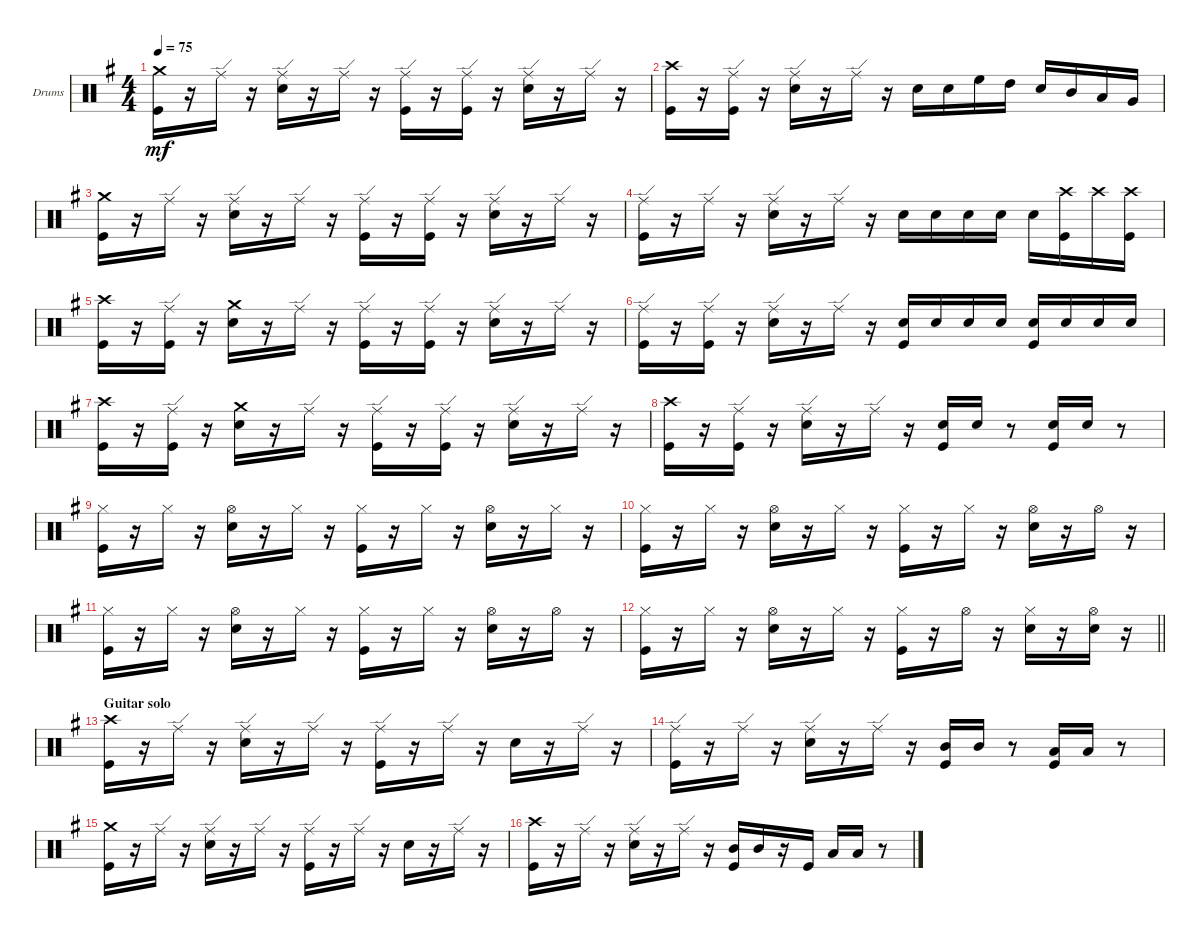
\bracketExtendMode groupsimilarinstruments
\firstSystemTrackNameOrientation horizontal
\otherSystemsTrackNameOrientation horizontal
\track ("Drumkit" "Drums") {instrument percussion}
\staff {score}
\articulation defaults
\ts (4 4)
\beaming (8 2 2 2 2)
\tempo 75
\clef neutral
\ks eminor
("Kick (hit)" "Crash medium (hit)").16{dy mf} r.16 "Ride (edge)".16 r.16 ("Snare (hit) 2" "Ride (edge)").16 r.16 "Ride (edge)".16 r.16 ("Kick (hit)" "Ride (edge)").16 r.16 ("Kick (hit)" "Ride (edge)").16 r.16 ("Snare (hit) 2" "Ride (edge)").16 r.16 "Ride (edge)".16 r.16 |
("Kick (hit)" "Crash high (hit)").16 r.16 ("Kick (hit)" "Ride (edge)").16 r.16 ("Snare (hit) 2" "Ride (edge)").16 r.16 "Ride (edge)".16 r.16 "Snare (hit) 2".16 "Snare (hit) 2".16 "High Floor Tom (hit)".16 "High Tom (hit)".16 "Snare (hit) 2".16 "Mid Tom (hit)".16 "Low Tom (hit)".16 "Very Low Tom (hit)".16 |
("Kick (hit)" "Crash medium (hit)").16 r.16 "Ride (edge)".16 r.16 ("Snare (hit) 2" "Ride (edge)").16 r.16 "Ride (edge)".16 r.16 ("Kick (hit)" "Ride (edge)").16 r.16 ("Kick (hit)" "Ride (edge)").16 r.16 ("Snare (hit) 2" "Ride (edge)").16 r.16 "Ride (edge)".16 r.16 |
("Kick (hit)" "Ride (edge)").16 r.16 "Ride (edge)".16 r.16 ("Snare (hit) 2" "Ride (edge)").16 r.16 "Ride (edge)".16 r.16 "Snare (hit) 2".16 "Snare (hit) 2".16 "Snare (hit) 2".16 "Snare (hit) 2".16 "Snare (hit) 2".16 ("Kick (hit)" "Crash high (hit)").16 "Crash high (hit)".16 ("Kick (hit)" "Crash high (hit)").16 |
("Kick (hit)" "Crash high (hit)").16 r.16 ("Kick (hit)" "Ride (edge)").16 r.16 ("Snare (hit) 2" "Crash medium (hit)").16 r.16 "Ride (edge)".16 r.16 ("Kick (hit)" "Ride (edge)").16 r.16 ("Kick (hit)" "Ride (edge)").16 r.16 ("Snare (hit) 2" "Ride (edge)").16 r.16 "Ride (edge)".16 r.16 |
("Kick (hit)" "Ride (edge)").16 r.16 ("Kick (hit)" "Ride (edge)").16 r.16 ("Snare (hit) 2" "Ride (edge)").16 r.16 "Ride (edge)".16 r.16 ("Kick (hit)" "Snare (hit) 2").16 "Snare (hit) 2".16 "Snare (hit) 2".16 "Snare (hit) 2".16 ("Kick (hit)" "Snare (hit) 2").16 "Snare (hit) 2".16 "Snare (hit) 2".16 "Snare (hit) 2".16 |
("Kick (hit)" "Crash high (hit)").16 r.16 ("Kick (hit)" "Ride (edge)").16 r.16 ("Snare (hit) 2" "Crash medium (hit)").16 r.16 "Ride (edge)".16 r.16 ("Kick (hit)" "Ride (edge)").16 r.16 ("Kick (hit)" "Ride (edge)").16 r.16 ("Snare (hit) 2" "Ride (edge)").16 r.16 "Ride (edge)".16 r.16 |
("Kick (hit)" "Crash high (hit)").16 r.16 ("Kick (hit)" "Ride (edge)").16 r.16 ("Snare (hit) 2" "Ride (edge)").16 r.16 "Ride (edge)".16 r.16 ("Kick (hit)" "Snare (hit) 2").16 "Snare (hit) 2".16 r.8 ("Kick (hit)" "Snare (hit) 2").16 "Snare (hit) 2".16 r.8 |
("Kick (hit)" "Hi-Hat (closed)").16 r.16 "Hi-Hat (closed)".16 r.16 ("Snare (hit) 2" "Hi-Hat (open)").16 r.16 "Hi-Hat (closed)".16 r.16 ("Kick (hit)" "Hi-Hat (closed)").16 r.16 "Hi-Hat (closed)".16 r.16 ("Snare (hit) 2" "Hi-Hat (open)").16 r.16 "Hi-Hat (closed)".16 r.16 |
("Kick (hit)" "Hi-Hat (closed)").16 r.16 "Hi-Hat (closed)".16 r.16 ("Snare (hit) 2" "Hi-Hat (open)").16 r.16 "Hi-Hat (closed)".16 r.16 ("Kick (hit)" "Hi-Hat (closed)").16 r.16 "Hi-Hat (closed)".16 r.16 ("Snare (hit) 2" "Hi-Hat (open)").16 r.16 "Hi-Hat (open)".16 r.16 |
("Kick (hit)" "Hi-Hat (closed)").16 r.16 "Hi-Hat (closed)".16 r.16 ("Snare (hit) 2" "Hi-Hat (open)").16 r.16 "Hi-Hat (closed)".16 r.16 ("Kick (hit)" "Hi-Hat (closed)").16 r.16 "Hi-Hat (closed)".16 r.16 ("Snare (hit) 2" "Hi-Hat (open)").16 r.16 "Hi-Hat (open)".16 r.16 |
\barLineRight lightlight
("Kick (hit)" "Hi-Hat (closed)").16 r.16 "Hi-Hat (closed)".16 r.16 ("Snare (hit) 2" "Hi-Hat (open)").16 r.16 "Hi-Hat (closed)".16 r.16 ("Kick (hit)" "Hi-Hat (closed)").16 r.16 "Hi-Hat (open)".16 r.16 ("Snare (hit) 2" "Hi-Hat (closed)").16 r.16 ("Snare (hit) 2" "Hi-Hat (open)").16 r.16 |
\section ("" "Guitar solo")
("Kick (hit)" "Crash high (hit)").16 r.16 "Ride (edge)".16 r.16 ("Snare (hit) 2" "Ride (edge)").16 r.16 "Ride (edge)".16 r.16 ("Kick (hit)" "Ride (edge)").16 r.16 "Ride (edge)".16 r.16 "Snare (hit) 2".16 r.16 "Ride (edge)".16 r.16 |
("Kick (hit)" "Ride (edge)").16 r.16 "Ride (edge)".16 r.16 ("Snare (hit) 2" "Ride (edge)").16 r.16 "Ride (edge)".16 r.16 ("Kick (hit)" "Mid Tom (hit)").16 "Mid Tom (hit)".16 r.8 ("Kick (hit)" "Low Tom (hit)").16 "Low Tom (hit)".16 r.8 |
("Kick (hit)" "Crash medium (hit)").16 r.16 "Ride (edge)".16 r.16 ("Snare (hit) 2" "Ride (edge)").16 r.16 "Ride (edge)".16 r.16 ("Kick (hit)" "Ride (edge)").16 r.16 "Ride (edge)".16 r.16 "Snare (hit) 2".16 r.16 "Ride (edge)".16 r.16 |
("Kick (hit)" "Crash high (hit)").16 r.16 "Ride (edge)".16 r.16 ("Snare (hit) 2" "Ride (edge)").16 r.16 "Ride (edge)".16 r.16 ("Kick (hit)" "Mid Tom (hit)").16 "Mid Tom (hit)".16 r.16 "Kick (hit)".16 "Low Tom (hit)".16 "Low Tom (hit)".16 r.8
